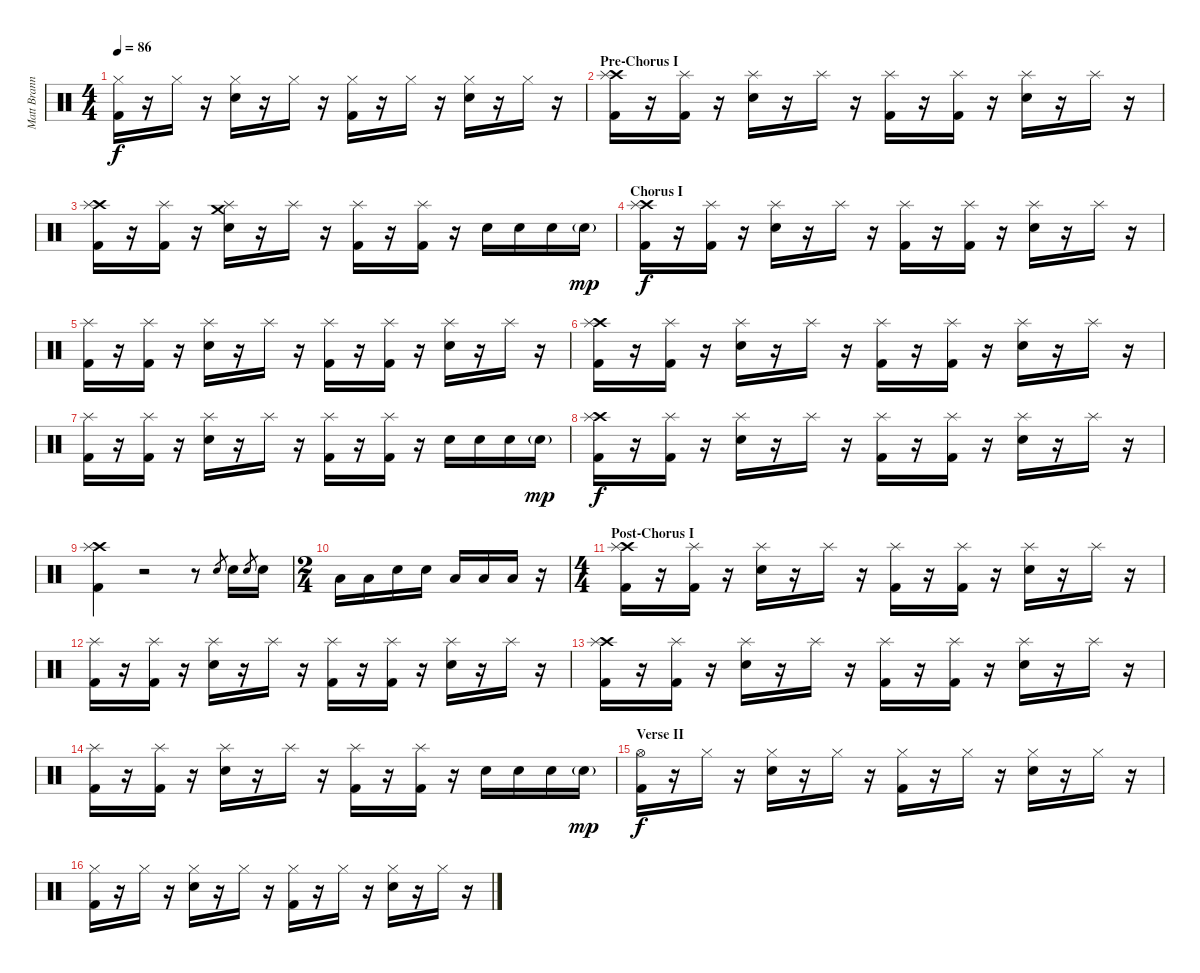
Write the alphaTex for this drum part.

\track ("Matt Brann - Drums" "Matt Brann") {instrument percussion}
\staff {score}
\articulation defaults
\ts (4 4)
\tempo 86
\clef neutral
\ks c
("Hi-Hat (closed)" "Kick (hit) 2").16{dy f} r.16 "Hi-Hat (closed)".16 r.16 ("Hi-Hat (closed)" "Snare (hit) 2").16 r.16 "Hi-Hat (closed)".16 r.16 ("Hi-Hat (closed)" "Kick (hit) 2").16 r.16 "Hi-Hat (closed)".16 r.16 ("Hi-Hat (closed)" "Snare (hit) 2").16 r.16 "Hi-Hat (closed)".16 r.16 |
\section ("" "Pre-Chorus I")
("Crash high (hit)" "Splash (hit)" "Kick (hit) 2").16 r.16 ("Splash (hit)" "Kick (hit) 2").16 r.16 ("Splash (hit)" "Snare (hit) 2").16 r.16 "Splash (hit)".16 r.16 ("Splash (hit)" "Kick (hit) 2").16 r.16 ("Splash (hit)" "Kick (hit) 2").16 r.16 ("Splash (hit)" "Snare (hit) 2").16 r.16 "Splash (hit)".16 r.16 |
("Crash high (hit)" "Splash (hit)" "Kick (hit) 2").16 r.16 ("Splash (hit)" "Kick (hit) 2").16 r.16 ("Crash medium (hit)" "Splash (hit)" "Snare (hit) 2").16 r.16 "Splash (hit)".16 r.16 ("Splash (hit)" "Kick (hit) 2").16 r.16 ("Splash (hit)" "Kick (hit) 2").16 r.16 "Snare (hit) 2".16 "Snare (hit) 2".16 "Snare (hit) 2".16 "Snare (hit) 2"{g}.16{dy mp} |
\section ("" "Chorus I")
("Crash high (hit)" "Splash (hit)" "Kick (hit) 2").16{dy f} r.16 ("Splash (hit)" "Kick (hit) 2").16 r.16 ("Splash (hit)" "Snare (hit) 2").16 r.16 "Splash (hit)".16 r.16 ("Splash (hit)" "Kick (hit) 2").16 r.16 ("Splash (hit)" "Kick (hit) 2").16 r.16 ("Splash (hit)" "Snare (hit) 2").16 r.16 "Splash (hit)".16 r.16 |
("Splash (hit)" "Kick (hit) 2").16 r.16 ("Splash (hit)" "Kick (hit) 2").16 r.16 ("Splash (hit)" "Snare (hit) 2").16 r.16 "Splash (hit)".16 r.16 ("Splash (hit)" "Kick (hit) 2").16 r.16 ("Splash (hit)" "Kick (hit) 2").16 r.16 ("Splash (hit)" "Snare (hit) 2").16 r.16 "Splash (hit)".16 r.16 |
("Crash high (hit)" "Splash (hit)" "Kick (hit) 2").16 r.16 ("Splash (hit)" "Kick (hit) 2").16 r.16 ("Splash (hit)" "Snare (hit) 2").16 r.16 "Splash (hit)".16 r.16 ("Splash (hit)" "Kick (hit) 2").16 r.16 ("Splash (hit)" "Kick (hit) 2").16 r.16 ("Splash (hit)" "Snare (hit) 2").16 r.16 "Splash (hit)".16 r.16 |
("Splash (hit)" "Kick (hit) 2").16 r.16 ("Splash (hit)" "Kick (hit) 2").16 r.16 ("Splash (hit)" "Snare (hit) 2").16 r.16 "Splash (hit)".16 r.16 ("Splash (hit)" "Kick (hit) 2").16 r.16 ("Splash (hit)" "Kick (hit) 2").16 r.16 "Snare (hit) 2".16 "Snare (hit) 2".16 "Snare (hit) 2".16 "Snare (hit) 2"{g}.16{dy mp} |
("Crash high (hit)" "Splash (hit)" "Kick (hit) 2").16{dy f} r.16 ("Splash (hit)" "Kick (hit) 2").16 r.16 ("Splash (hit)" "Snare (hit) 2").16 r.16 "Splash (hit)".16 r.16 ("Splash (hit)" "Kick (hit) 2").16 r.16 ("Splash (hit)" "Kick (hit) 2").16 r.16 ("Splash (hit)" "Snare (hit) 2").16 r.16 "Splash (hit)".16 r.16 |
("Crash high (hit)" "Splash (hit)" "Kick (hit) 2").4 r.2 r.8 "Snare (hit) 2".8{gr} "Snare (hit) 2".16 "Snare (hit) 2".8{gr} "Snare (hit) 2".16 |
\ts (2 4)
"Low Floor Tom (hit)".16 "Low Floor Tom (hit)".16 "Snare (hit) 2".16 "Snare (hit) 2".16 "Low Floor Tom (hit)".16 "Low Floor Tom (hit)".16 "Low Floor Tom (hit)".16 r.16 |
\ts (4 4)
\section ("" "Post-Chorus I")
("Crash high (hit)" "Splash (hit)" "Kick (hit) 2").16 r.16 ("Splash (hit)" "Kick (hit) 2").16 r.16 ("Splash (hit)" "Snare (hit) 2").16 r.16 "Splash (hit)".16 r.16 ("Splash (hit)" "Kick (hit) 2").16 r.16 ("Splash (hit)" "Kick (hit) 2").16 r.16 ("Splash (hit)" "Snare (hit) 2").16 r.16 "Splash (hit)".16 r.16 |
("Splash (hit)" "Kick (hit) 2").16 r.16 ("Splash (hit)" "Kick (hit) 2").16 r.16 ("Splash (hit)" "Snare (hit) 2").16 r.16 "Splash (hit)".16 r.16 ("Splash (hit)" "Kick (hit) 2").16 r.16 ("Splash (hit)" "Kick (hit) 2").16 r.16 ("Splash (hit)" "Snare (hit) 2").16 r.16 "Splash (hit)".16 r.16 |
("Crash high (hit)" "Splash (hit)" "Kick (hit) 2").16 r.16 ("Splash (hit)" "Kick (hit) 2").16 r.16 ("Splash (hit)" "Snare (hit) 2").16 r.16 "Splash (hit)".16 r.16 ("Splash (hit)" "Kick (hit) 2").16 r.16 ("Splash (hit)" "Kick (hit) 2").16 r.16 ("Splash (hit)" "Snare (hit) 2").16 r.16 "Splash (hit)".16 r.16 |
("Splash (hit)" "Kick (hit) 2").16 r.16 ("Splash (hit)" "Kick (hit) 2").16 r.16 ("Splash (hit)" "Snare (hit) 2").16 r.16 "Splash (hit)".16 r.16 ("Splash (hit)" "Kick (hit) 2").16 r.16 ("Splash (hit)" "Kick (hit) 2").16 r.16 "Snare (hit) 2".16 "Snare (hit) 2".16 "Snare (hit) 2".16 "Snare (hit) 2"{g}.16{dy mp} |
\section ("" "Verse II")
("Hi-Hat (open)" "Kick (hit) 2").16{dy f} r.16 "Hi-Hat (closed)".16 r.16 ("Hi-Hat (closed)" "Snare (hit) 2").16 r.16 "Hi-Hat (closed)".16 r.16 ("Hi-Hat (closed)" "Kick (hit) 2").16 r.16 "Hi-Hat (closed)".16 r.16 ("Hi-Hat (closed)" "Snare (hit) 2").16 r.16 "Hi-Hat (closed)".16 r.16 |
("Hi-Hat (closed)" "Kick (hit) 2").16 r.16 "Hi-Hat (closed)".16 r.16 ("Hi-Hat (closed)" "Snare (hit) 2").16 r.16 "Hi-Hat (closed)".16 r.16 ("Hi-Hat (closed)" "Kick (hit) 2").16 r.16 "Hi-Hat (closed)".16 r.16 ("Hi-Hat (closed)" "Snare (hit) 2").16 r.16 "Hi-Hat (closed)".16 r.16
